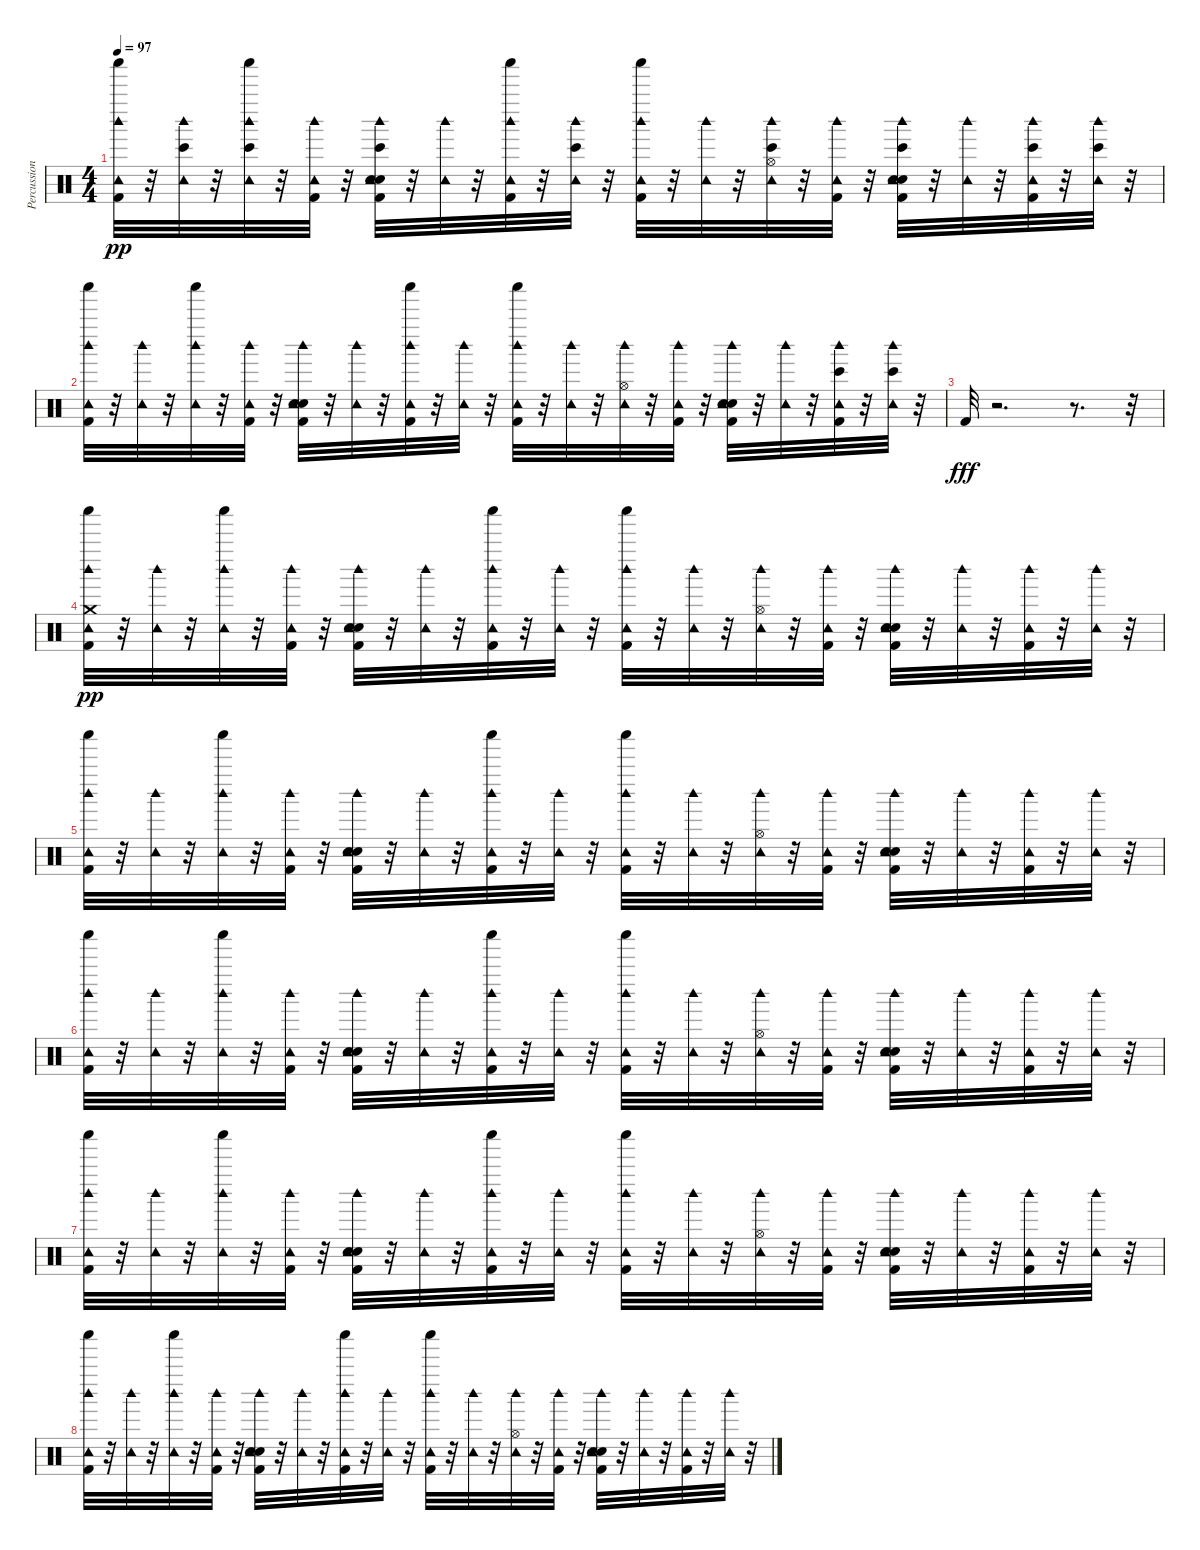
\track ("Percussion" "Percussion") {instrument percussion}
\staff {score}
\articulation defaults
\ts (4 4)
\tempo 97
\clef neutral
\ks c
("Kick (hit) 2" "Tambourine (hit)" "Shaker (hit)" "Woodblock high (hit)").32{dy pp} r.32 ("Tambourine (hit)" "Bongo High (hit)" "Woodblock high (hit)").32 r.32 ("Tambourine (hit)" "Bongo High (hit)" "Shaker (hit)" "Woodblock high (hit)").32 r.32 ("Kick (hit) 2" "Tambourine (hit)" "Woodblock high (hit)").32 r.32 ("Kick (hit) 2" "Snare (hit) 2" "Hand Clap (hit)" "Tambourine (hit)" "Bongo High (hit)" "Woodblock high (hit)").32 r.32 ("Tambourine (hit)" "Woodblock high (hit)").32 r.32 ("Kick (hit) 2" "Tambourine (hit)" "Shaker (hit)" "Woodblock high (hit)").32 r.32 ("Tambourine (hit)" "Bongo High (hit)" "Woodblock high (hit)").32 r.32 ("Kick (hit) 2" "Tambourine (hit)" "Shaker (hit)" "Woodblock high (hit)").32 r.32 ("Tambourine (hit)" "Woodblock high (hit)").32 r.32 ("Hi-Hat (open)" "Tambourine (hit)" "Bongo High (hit)" "Woodblock high (hit)").32 r.32 ("Kick (hit) 2" "Tambourine (hit)" "Woodblock high (hit)").32 r.32 ("Kick (hit) 2" "Snare (hit) 2" "Hand Clap (hit)" "Tambourine (hit)" "Bongo High (hit)" "Woodblock high (hit)").32 r.32 ("Tambourine (hit)" "Woodblock high (hit)").32 r.32 ("Kick (hit) 2" "Tambourine (hit)" "Bongo High (hit)" "Woodblock high (hit)").32 r.32 ("Tambourine (hit)" "Bongo High (hit)" "Woodblock high (hit)").32 r.32 |
("Kick (hit) 2" "Tambourine (hit)" "Shaker (hit)" "Woodblock high (hit)").32 r.32 ("Tambourine (hit)" "Woodblock high (hit)").32 r.32 ("Tambourine (hit)" "Shaker (hit)" "Woodblock high (hit)").32 r.32 ("Kick (hit) 2" "Tambourine (hit)" "Woodblock high (hit)").32 r.32 ("Kick (hit) 2" "Snare (hit) 2" "Hand Clap (hit)" "Tambourine (hit)" "Woodblock high (hit)").32 r.32 ("Tambourine (hit)" "Woodblock high (hit)").32 r.32 ("Kick (hit) 2" "Tambourine (hit)" "Shaker (hit)" "Woodblock high (hit)").32 r.32 ("Tambourine (hit)" "Woodblock high (hit)").32 r.32 ("Kick (hit) 2" "Tambourine (hit)" "Shaker (hit)" "Woodblock high (hit)").32 r.32 ("Tambourine (hit)" "Woodblock high (hit)").32 r.32 ("Hi-Hat (open)" "Tambourine (hit)" "Woodblock high (hit)").32 r.32 ("Kick (hit) 2" "Tambourine (hit)" "Woodblock high (hit)").32 r.32 ("Kick (hit) 2" "Snare (hit) 2" "Hand Clap (hit)" "Tambourine (hit)" "Woodblock high (hit)").32 r.32 ("Tambourine (hit)" "Woodblock high (hit)").32 r.32 ("Kick (hit) 2" "Tambourine (hit)" "Bongo High (hit)" "Woodblock high (hit)").32 r.32 ("Tambourine (hit)" "Bongo High (hit)" "Woodblock high (hit)").32 r.32 |
"Kick (hit) 2".32{dy fff} r.2{d} r.8{d} r.32 |
("Kick (hit) 2" "Tambourine (hit)" "Crash medium (hit)" "Shaker (hit)" "Woodblock high (hit)").32{dy pp} r.32 ("Tambourine (hit)" "Woodblock high (hit)").32 r.32 ("Tambourine (hit)" "Shaker (hit)" "Woodblock high (hit)").32 r.32 ("Kick (hit) 2" "Tambourine (hit)" "Woodblock high (hit)").32 r.32 ("Kick (hit) 2" "Snare (hit) 2" "Hand Clap (hit)" "Tambourine (hit)" "Woodblock high (hit)").32 r.32 ("Tambourine (hit)" "Woodblock high (hit)").32 r.32 ("Kick (hit) 2" "Tambourine (hit)" "Shaker (hit)" "Woodblock high (hit)").32 r.32 ("Tambourine (hit)" "Woodblock high (hit)").32 r.32 ("Kick (hit) 2" "Tambourine (hit)" "Shaker (hit)" "Woodblock high (hit)").32 r.32 ("Tambourine (hit)" "Woodblock high (hit)").32 r.32 ("Hi-Hat (open)" "Tambourine (hit)" "Woodblock high (hit)").32 r.32 ("Kick (hit) 2" "Tambourine (hit)" "Woodblock high (hit)").32 r.32 ("Kick (hit) 2" "Snare (hit) 2" "Hand Clap (hit)" "Tambourine (hit)" "Woodblock high (hit)").32 r.32 ("Tambourine (hit)" "Woodblock high (hit)").32 r.32 ("Kick (hit) 2" "Tambourine (hit)" "Woodblock high (hit)").32 r.32 ("Tambourine (hit)" "Woodblock high (hit)").32 r.32 |
("Kick (hit) 2" "Tambourine (hit)" "Shaker (hit)" "Woodblock high (hit)").32 r.32 ("Tambourine (hit)" "Woodblock high (hit)").32 r.32 ("Tambourine (hit)" "Shaker (hit)" "Woodblock high (hit)").32 r.32 ("Kick (hit) 2" "Tambourine (hit)" "Woodblock high (hit)").32 r.32 ("Kick (hit) 2" "Snare (hit) 2" "Hand Clap (hit)" "Tambourine (hit)" "Woodblock high (hit)").32 r.32 ("Tambourine (hit)" "Woodblock high (hit)").32 r.32 ("Kick (hit) 2" "Tambourine (hit)" "Shaker (hit)" "Woodblock high (hit)").32 r.32 ("Tambourine (hit)" "Woodblock high (hit)").32 r.32 ("Kick (hit) 2" "Tambourine (hit)" "Shaker (hit)" "Woodblock high (hit)").32 r.32 ("Tambourine (hit)" "Woodblock high (hit)").32 r.32 ("Hi-Hat (open)" "Tambourine (hit)" "Woodblock high (hit)").32 r.32 ("Kick (hit) 2" "Tambourine (hit)" "Woodblock high (hit)").32 r.32 ("Kick (hit) 2" "Snare (hit) 2" "Hand Clap (hit)" "Tambourine (hit)" "Woodblock high (hit)").32 r.32 ("Tambourine (hit)" "Woodblock high (hit)").32 r.32 ("Kick (hit) 2" "Tambourine (hit)" "Woodblock high (hit)").32 r.32 ("Tambourine (hit)" "Woodblock high (hit)").32 r.32 |
("Kick (hit) 2" "Tambourine (hit)" "Shaker (hit)" "Woodblock high (hit)").32 r.32 ("Tambourine (hit)" "Woodblock high (hit)").32 r.32 ("Tambourine (hit)" "Shaker (hit)" "Woodblock high (hit)").32 r.32 ("Kick (hit) 2" "Tambourine (hit)" "Woodblock high (hit)").32 r.32 ("Kick (hit) 2" "Snare (hit) 2" "Hand Clap (hit)" "Tambourine (hit)" "Woodblock high (hit)").32 r.32 ("Tambourine (hit)" "Woodblock high (hit)").32 r.32 ("Kick (hit) 2" "Tambourine (hit)" "Shaker (hit)" "Woodblock high (hit)").32 r.32 ("Tambourine (hit)" "Woodblock high (hit)").32 r.32 ("Kick (hit) 2" "Tambourine (hit)" "Shaker (hit)" "Woodblock high (hit)").32 r.32 ("Tambourine (hit)" "Woodblock high (hit)").32 r.32 ("Hi-Hat (open)" "Tambourine (hit)" "Woodblock high (hit)").32 r.32 ("Kick (hit) 2" "Tambourine (hit)" "Woodblock high (hit)").32 r.32 ("Kick (hit) 2" "Snare (hit) 2" "Hand Clap (hit)" "Tambourine (hit)" "Woodblock high (hit)").32 r.32 ("Tambourine (hit)" "Woodblock high (hit)").32 r.32 ("Kick (hit) 2" "Tambourine (hit)" "Woodblock high (hit)").32 r.32 ("Tambourine (hit)" "Woodblock high (hit)").32 r.32 |
("Kick (hit) 2" "Tambourine (hit)" "Shaker (hit)" "Woodblock high (hit)").32 r.32 ("Tambourine (hit)" "Woodblock high (hit)").32 r.32 ("Tambourine (hit)" "Shaker (hit)" "Woodblock high (hit)").32 r.32 ("Kick (hit) 2" "Tambourine (hit)" "Woodblock high (hit)").32 r.32 ("Kick (hit) 2" "Snare (hit) 2" "Hand Clap (hit)" "Tambourine (hit)" "Woodblock high (hit)").32 r.32 ("Tambourine (hit)" "Woodblock high (hit)").32 r.32 ("Kick (hit) 2" "Tambourine (hit)" "Shaker (hit)" "Woodblock high (hit)").32 r.32 ("Tambourine (hit)" "Woodblock high (hit)").32 r.32 ("Kick (hit) 2" "Tambourine (hit)" "Shaker (hit)" "Woodblock high (hit)").32 r.32 ("Tambourine (hit)" "Woodblock high (hit)").32 r.32 ("Hi-Hat (open)" "Tambourine (hit)" "Woodblock high (hit)").32 r.32 ("Kick (hit) 2" "Tambourine (hit)" "Woodblock high (hit)").32 r.32 ("Kick (hit) 2" "Snare (hit) 2" "Hand Clap (hit)" "Tambourine (hit)" "Woodblock high (hit)").32 r.32 ("Tambourine (hit)" "Woodblock high (hit)").32 r.32 ("Kick (hit) 2" "Tambourine (hit)" "Woodblock high (hit)").32 r.32 ("Tambourine (hit)" "Woodblock high (hit)").32 r.32 |
("Kick (hit) 2" "Tambourine (hit)" "Shaker (hit)" "Woodblock high (hit)").32 r.32 ("Tambourine (hit)" "Woodblock high (hit)").32 r.32 ("Tambourine (hit)" "Shaker (hit)" "Woodblock high (hit)").32 r.32 ("Kick (hit) 2" "Tambourine (hit)" "Woodblock high (hit)").32 r.32 ("Kick (hit) 2" "Snare (hit) 2" "Hand Clap (hit)" "Tambourine (hit)" "Woodblock high (hit)").32 r.32 ("Tambourine (hit)" "Woodblock high (hit)").32 r.32 ("Kick (hit) 2" "Tambourine (hit)" "Shaker (hit)" "Woodblock high (hit)").32 r.32 ("Tambourine (hit)" "Woodblock high (hit)").32 r.32 ("Kick (hit) 2" "Tambourine (hit)" "Shaker (hit)" "Woodblock high (hit)").32 r.32 ("Tambourine (hit)" "Woodblock high (hit)").32 r.32 ("Hi-Hat (open)" "Tambourine (hit)" "Woodblock high (hit)").32 r.32 ("Kick (hit) 2" "Tambourine (hit)" "Woodblock high (hit)").32 r.32 ("Kick (hit) 2" "Snare (hit) 2" "Hand Clap (hit)" "Tambourine (hit)" "Woodblock high (hit)").32 r.32 ("Tambourine (hit)" "Woodblock high (hit)").32 r.32 ("Kick (hit) 2" "Tambourine (hit)" "Woodblock high (hit)").32 r.32 ("Tambourine (hit)" "Woodblock high (hit)").32 r.32
